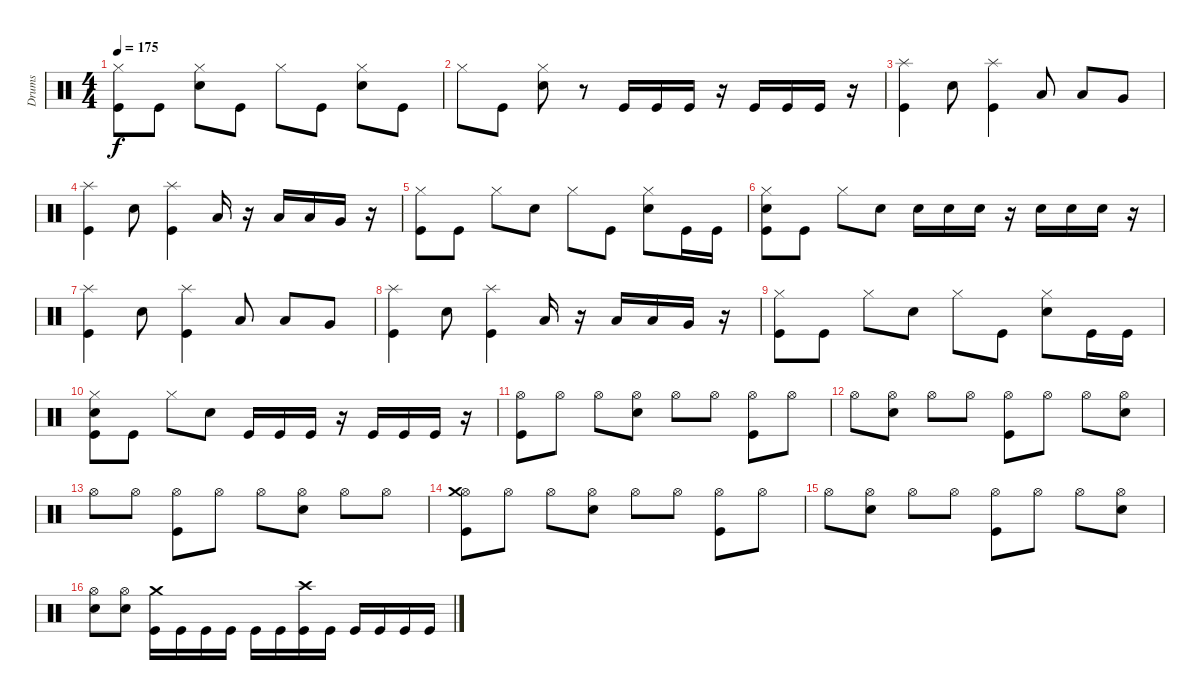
\track ("Drums" "Drums") {instrument percussion}
\staff {score}
\articulation defaults
\ts (4 4)
\tempo 175
\clef neutral
\ks c
("Hi-Hat (closed)" "Kick (hit)").8{dy f} "Kick (hit)".8 ("Hi-Hat (closed)" "Snare (hit) 2").8 "Kick (hit)".8 "Hi-Hat (closed)".8 "Kick (hit)".8 ("Hi-Hat (closed)" "Snare (hit) 2").8 "Kick (hit)".8 |
"Hi-Hat (closed)".8 "Kick (hit)".8 ("Hi-Hat (closed)" "Snare (hit) 2").8 r.8 "Kick (hit)".16 "Kick (hit)".16 "Kick (hit)".16 r.16 "Kick (hit)".16 "Kick (hit)".16 "Kick (hit)".16 r.16 |
("Splash (hit)" "Kick (hit)").4 "Snare (hit) 2".8 ("Splash (hit)" "Kick (hit)").4 "Low Tom (hit)".8 "Low Tom (hit)".8 "Very Low Tom (hit)".8 |
("Splash (hit)" "Kick (hit)").4 "Snare (hit) 2".8 ("Splash (hit)" "Kick (hit)").4 "Low Tom (hit)".16 r.16 "Low Tom (hit)".16 "Low Tom (hit)".16 "Very Low Tom (hit)".16 r.16 |
("Hi-Hat (closed)" "Kick (hit)").8 "Kick (hit)".8 "Hi-Hat (closed)".8 "Snare (hit) 2".8 "Hi-Hat (closed)".8 "Kick (hit)".8 ("Hi-Hat (closed)" "Snare (hit) 2").8 "Kick (hit)".16 "Kick (hit)".16 |
("Hi-Hat (closed)" "Snare (hit) 2" "Kick (hit)").8 "Kick (hit)".8 "Hi-Hat (closed)".8 "Snare (hit) 2".8 "Snare (hit) 2".16 "Snare (hit) 2".16 "Snare (hit) 2".16 r.16 "Snare (hit) 2".16 "Snare (hit) 2".16 "Snare (hit) 2".16 r.16 |
("Splash (hit)" "Kick (hit)").4 "Snare (hit) 2".8 ("Splash (hit)" "Kick (hit)").4 "Low Tom (hit)".8 "Low Tom (hit)".8 "Very Low Tom (hit)".8 |
("Splash (hit)" "Kick (hit)").4 "Snare (hit) 2".8 ("Splash (hit)" "Kick (hit)").4 "Low Tom (hit)".16 r.16 "Low Tom (hit)".16 "Low Tom (hit)".16 "Very Low Tom (hit)".16 r.16 |
("Hi-Hat (closed)" "Kick (hit)").8 "Kick (hit)".8 "Hi-Hat (closed)".8 "Snare (hit) 2".8 "Hi-Hat (closed)".8 "Kick (hit)".8 ("Hi-Hat (closed)" "Snare (hit) 2").8 "Kick (hit)".16 "Kick (hit)".16 |
("Hi-Hat (closed)" "Snare (hit) 2" "Kick (hit)").8 "Kick (hit)".8 "Hi-Hat (closed)".8 "Snare (hit) 2".8 "Kick (hit)".16 "Kick (hit)".16 "Kick (hit)".16 r.16 "Kick (hit)".16 "Kick (hit)".16 "Kick (hit)".16 r.16 |
("Hi-Hat (open)" "Kick (hit)").8 "Hi-Hat (open)".8 "Hi-Hat (open)".8 ("Hi-Hat (open)" "Snare (hit) 2").8 "Hi-Hat (open)".8 "Hi-Hat (open)".8 ("Hi-Hat (open)" "Kick (hit)").8 "Hi-Hat (open)".8 |
"Hi-Hat (open)".8 ("Hi-Hat (open)" "Snare (hit) 2").8 "Hi-Hat (open)".8 "Hi-Hat (open)".8 ("Hi-Hat (open)" "Kick (hit)").8 "Hi-Hat (open)".8 "Hi-Hat (open)".8 ("Hi-Hat (open)" "Snare (hit) 2").8 |
"Hi-Hat (open)".8 "Hi-Hat (open)".8 ("Hi-Hat (open)" "Kick (hit)").8 "Hi-Hat (open)".8 "Hi-Hat (open)".8 ("Hi-Hat (open)" "Snare (hit) 2").8 "Hi-Hat (open)".8 "Hi-Hat (open)".8 |
("Hi-Hat (open)" "Crash medium (hit)" "Kick (hit)").8 "Hi-Hat (open)".8 "Hi-Hat (open)".8 ("Hi-Hat (open)" "Snare (hit) 2").8 "Hi-Hat (open)".8 "Hi-Hat (open)".8 ("Hi-Hat (open)" "Kick (hit)").8 "Hi-Hat (open)".8 |
"Hi-Hat (open)".8 ("Hi-Hat (open)" "Snare (hit) 2").8 "Hi-Hat (open)".8 "Hi-Hat (open)".8 ("Hi-Hat (open)" "Kick (hit)").8 "Hi-Hat (open)".8 "Hi-Hat (open)".8 ("Hi-Hat (open)" "Snare (hit) 2").8 |
("Hi-Hat (open)" "Snare (hit) 2").8 ("Hi-Hat (open)" "Snare (hit) 2").8 ("Crash medium (hit)" "Kick (hit)").16 "Kick (hit)".16 "Kick (hit)".16 "Kick (hit)".16 "Kick (hit)".16 "Kick (hit)".16 ("Crash high (hit)" "Kick (hit)").16 "Kick (hit)".16 "Kick (hit)".16 "Kick (hit)".16 "Kick (hit)".16 "Kick (hit)".16
